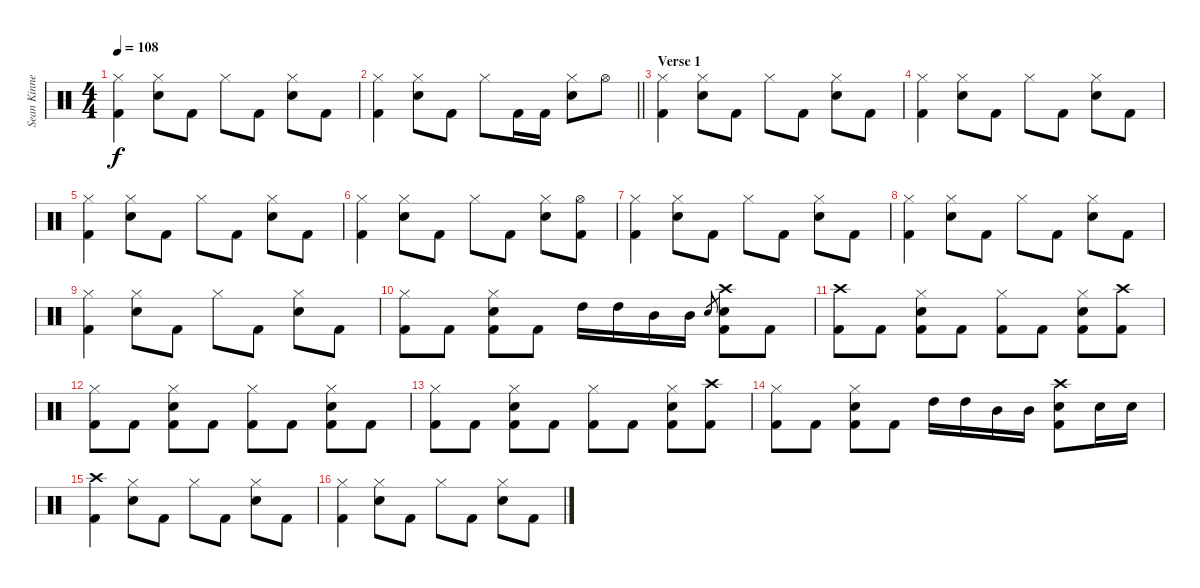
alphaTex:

\track ("Sean Kinney- Drums" "Sean Kinne") {instrument percussion}
\staff {score}
\articulation defaults
\ts (4 4)
\tempo 108
\clef neutral
\ks c
("Hi-Hat (closed)" "Kick (hit) 2").4{dy f} ("Hi-Hat (closed)" "Electric Snare (hit)").8 "Kick (hit) 2".8 "Hi-Hat (closed)".8 "Kick (hit) 2".8 ("Hi-Hat (closed)" "Electric Snare (hit)").8 "Kick (hit) 2".8 |
\barLineRight lightlight
("Hi-Hat (closed)" "Kick (hit) 2").4 ("Hi-Hat (closed)" "Electric Snare (hit)").8 "Kick (hit) 2".8 "Hi-Hat (closed)".8 "Kick (hit) 2".16 "Kick (hit) 2".16 ("Hi-Hat (closed)" "Electric Snare (hit)").8 "Hi-Hat (open)".8 |
\section ("" "Verse 1")
("Hi-Hat (closed)" "Kick (hit) 2").4 ("Hi-Hat (closed)" "Electric Snare (hit)").8 "Kick (hit) 2".8 "Hi-Hat (closed)".8 "Kick (hit) 2".8 ("Hi-Hat (closed)" "Electric Snare (hit)").8 "Kick (hit) 2".8 |
("Hi-Hat (closed)" "Kick (hit) 2").4 ("Hi-Hat (closed)" "Electric Snare (hit)").8 "Kick (hit) 2".8 "Hi-Hat (closed)".8 "Kick (hit) 2".8 ("Hi-Hat (closed)" "Electric Snare (hit)").8 "Kick (hit) 2".8 |
("Hi-Hat (closed)" "Kick (hit) 2").4 ("Hi-Hat (closed)" "Electric Snare (hit)").8 "Kick (hit) 2".8 "Hi-Hat (closed)".8 "Kick (hit) 2".8 ("Hi-Hat (closed)" "Electric Snare (hit)").8 "Kick (hit) 2".8 |
("Hi-Hat (closed)" "Kick (hit) 2").4 ("Hi-Hat (closed)" "Electric Snare (hit)").8 "Kick (hit) 2".8 "Hi-Hat (closed)".8 "Kick (hit) 2".8 ("Hi-Hat (closed)" "Electric Snare (hit)").8 ("Hi-Hat (open)" "Kick (hit) 2").8 |
("Hi-Hat (closed)" "Kick (hit) 2").4 ("Hi-Hat (closed)" "Electric Snare (hit)").8 "Kick (hit) 2".8 "Hi-Hat (closed)".8 "Kick (hit) 2".8 ("Hi-Hat (closed)" "Electric Snare (hit)").8 "Kick (hit) 2".8 |
("Hi-Hat (closed)" "Kick (hit) 2").4 ("Hi-Hat (closed)" "Electric Snare (hit)").8 "Kick (hit) 2".8 "Hi-Hat (closed)".8 "Kick (hit) 2".8 ("Hi-Hat (closed)" "Electric Snare (hit)").8 "Kick (hit) 2".8 |
("Hi-Hat (closed)" "Kick (hit) 2").4 ("Hi-Hat (closed)" "Electric Snare (hit)").8 "Kick (hit) 2".8 "Hi-Hat (closed)".8 "Kick (hit) 2".8 ("Hi-Hat (closed)" "Electric Snare (hit)").8 "Kick (hit) 2".8 |
("Hi-Hat (closed)" "Kick (hit) 2").8 "Kick (hit) 2".8 ("Hi-Hat (closed)" "Electric Snare (hit)" "Kick (hit) 2").8 "Kick (hit) 2".8 "High Tom (hit)".16 "High Tom (hit)".16 "Mid Tom (hit)".16 "Mid Tom (hit)".16 "Electric Snare (hit)".8{gr} ("Crash high (hit)" "Electric Snare (hit)" "Kick (hit) 2").8 "Kick (hit) 2".8 |
("Crash high (hit)" "Kick (hit) 2").8 "Kick (hit) 2".8 ("Hi-Hat (closed)" "Electric Snare (hit)" "Kick (hit) 2").8 "Kick (hit) 2".8 ("Hi-Hat (closed)" "Kick (hit) 2").8 "Kick (hit) 2".8 ("Hi-Hat (closed)" "Electric Snare (hit)" "Kick (hit) 2").8 ("Crash high (hit)" "Kick (hit) 2").8 |
("Hi-Hat (closed)" "Kick (hit) 2").8 "Kick (hit) 2".8 ("Hi-Hat (closed)" "Electric Snare (hit)" "Kick (hit) 2").8 "Kick (hit) 2".8 ("Hi-Hat (closed)" "Kick (hit) 2").8 "Kick (hit) 2".8 ("Hi-Hat (closed)" "Electric Snare (hit)" "Kick (hit) 2").8 "Kick (hit) 2".8 |
("Hi-Hat (closed)" "Kick (hit) 2").8 "Kick (hit) 2".8 ("Hi-Hat (closed)" "Electric Snare (hit)" "Kick (hit) 2").8 "Kick (hit) 2".8 ("Hi-Hat (closed)" "Kick (hit) 2").8 "Kick (hit) 2".8 ("Hi-Hat (closed)" "Electric Snare (hit)" "Kick (hit) 2").8 ("Crash high (hit)" "Kick (hit) 2").8 |
("Hi-Hat (closed)" "Kick (hit) 2").8 "Kick (hit) 2".8 ("Hi-Hat (closed)" "Electric Snare (hit)" "Kick (hit) 2").8 "Kick (hit) 2".8 "High Tom (hit)".16 "High Tom (hit)".16 "Mid Tom (hit)".16 "Mid Tom (hit)".16 ("Crash high (hit)" "Electric Snare (hit)" "Kick (hit) 2").8 "Electric Snare (hit)".16 "Electric Snare (hit)".16 |
("Crash high (hit)" "Kick (hit) 2").4 ("Hi-Hat (closed)" "Electric Snare (hit)").8 "Kick (hit) 2".8 "Hi-Hat (closed)".8 "Kick (hit) 2".8 ("Hi-Hat (closed)" "Electric Snare (hit)").8 "Kick (hit) 2".8 |
("Hi-Hat (closed)" "Kick (hit) 2").4 ("Hi-Hat (closed)" "Electric Snare (hit)").8 "Kick (hit) 2".8 "Hi-Hat (closed)".8 "Kick (hit) 2".8 ("Hi-Hat (closed)" "Electric Snare (hit)").8 "Kick (hit) 2".8
